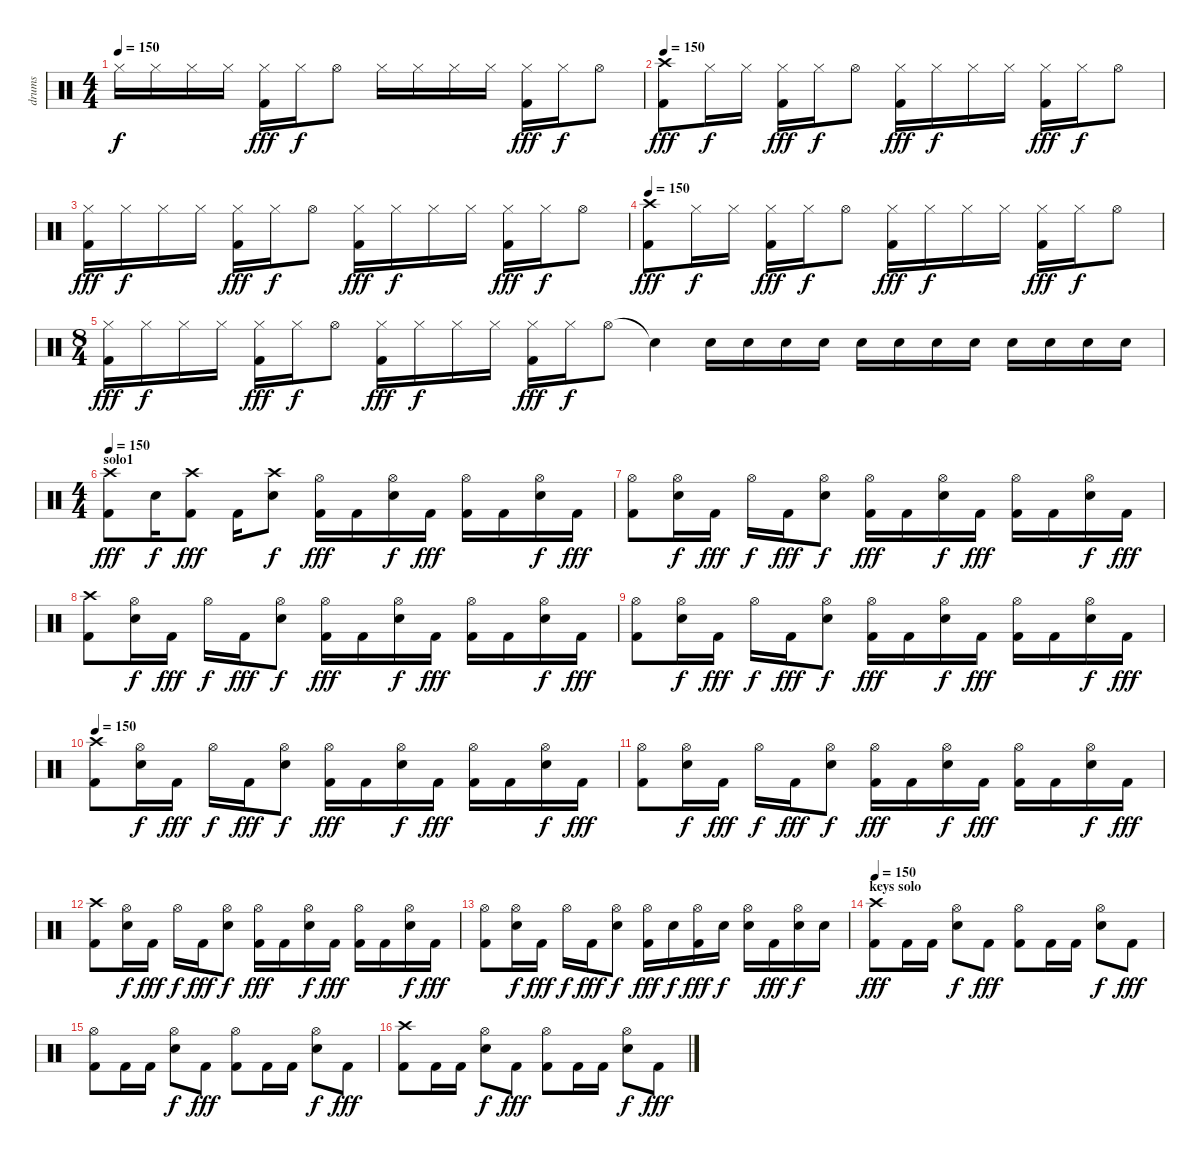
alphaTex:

\track ("drums" "drums") {instrument percussion}
\staff {score}
\articulation defaults
\ts (4 4)
\tempo 150
\clef neutral
\ks c "Hi-Hat (closed)".16{dy f} "Hi-Hat (closed)".16 "Hi-Hat (closed)".16 "Hi-Hat (closed)".16
("Hi-Hat (closed)" "Kick (hit) 2").16{dy fff} "Hi-Hat (closed)".16{dy f} "Hi-Hat (open)".8 "Hi-Hat (closed)".16 "Hi-Hat (closed)".16 "Hi-Hat (closed)".16 "Hi-Hat (closed)".16 ("Hi-Hat (closed)" "Kick (hit) 2").16{dy fff} "Hi-Hat (closed)".16{dy f} "Hi-Hat (open)".8 |
\tempo 150
("Crash high (hit)" "Kick (hit) 2").8{dy fff} "Hi-Hat (closed)".16{dy f} "Hi-Hat (closed)".16 ("Hi-Hat (closed)" "Kick (hit) 2").16{dy fff} "Hi-Hat (closed)".16{dy f} "Hi-Hat (open)".8 ("Hi-Hat (closed)" "Kick (hit) 2").16{dy fff} "Hi-Hat (closed)".16{dy f} "Hi-Hat (closed)".16 "Hi-Hat (closed)".16 ("Hi-Hat (closed)" "Kick (hit) 2").16{dy fff} "Hi-Hat (closed)".16{dy f} "Hi-Hat (open)".8 |
("Hi-Hat (closed)" "Kick (hit) 2").16{dy fff} "Hi-Hat (closed)".16{dy f} "Hi-Hat (closed)".16 "Hi-Hat (closed)".16 ("Hi-Hat (closed)" "Kick (hit) 2").16{dy fff} "Hi-Hat (closed)".16{dy f} "Hi-Hat (open)".8 ("Hi-Hat (closed)" "Kick (hit) 2").16{dy fff} "Hi-Hat (closed)".16{dy f} "Hi-Hat (closed)".16 "Hi-Hat (closed)".16 ("Hi-Hat (closed)" "Kick (hit) 2").16{dy fff} "Hi-Hat (closed)".16{dy f} "Hi-Hat (open)".8 |
\tempo 150
("Crash high (hit)" "Kick (hit) 2").8{dy fff} "Hi-Hat (closed)".16{dy f} "Hi-Hat (closed)".16 ("Hi-Hat (closed)" "Kick (hit) 2").16{dy fff} "Hi-Hat (closed)".16{dy f} "Hi-Hat (open)".8 ("Hi-Hat (closed)" "Kick (hit) 2").16{dy fff} "Hi-Hat (closed)".16{dy f} "Hi-Hat (closed)".16 "Hi-Hat (closed)".16 ("Hi-Hat (closed)" "Kick (hit) 2").16{dy fff} "Hi-Hat (closed)".16{dy f} "Hi-Hat (open)".8 |
\ts (8 4)
("Hi-Hat (closed)" "Kick (hit) 2").16{dy fff} "Hi-Hat (closed)".16{dy f} "Hi-Hat (closed)".16 "Hi-Hat (closed)".16 ("Hi-Hat (closed)" "Kick (hit) 2").16{dy fff} "Hi-Hat (closed)".16{dy f} "Hi-Hat (open)".8 ("Hi-Hat (closed)" "Kick (hit) 2").16{dy fff} "Hi-Hat (closed)".16{dy f} "Hi-Hat (closed)".16 "Hi-Hat (closed)".16 ("Hi-Hat (closed)" "Kick (hit) 2").16{dy fff} "Hi-Hat (closed)".16{dy f} "Hi-Hat (open)".8 "Snare (hit)"{t}.4 "Snare (hit) 2".16 "Snare (hit) 2".16 "Snare (hit) 2".16 "Snare (hit) 2".16 "Snare (hit) 2".16 "Snare (hit) 2".16 "Snare (hit) 2".16 "Snare (hit) 2".16 "Snare (hit) 2".16 "Snare (hit) 2".16 "Snare (hit) 2".16 "Snare (hit) 2".16 |
\ts (4 4)
\section ("" "solo1")
\tempo 150
("Crash high (hit)" "Kick (hit) 2").8{dy fff} "Snare (hit) 2".16{dy f} ("Crash high (hit)" "Kick (hit) 2").8{dy fff} "Kick (hit) 2".16 ("Crash high (hit)" "Snare (hit) 2").8{dy f} ("Hi-Hat (open)" "Kick (hit) 2").16{dy fff} "Kick (hit) 2".16 ("Hi-Hat (open)" "Snare (hit) 2").16{dy f} "Kick (hit) 2".16{dy fff} ("Hi-Hat (open)" "Kick (hit) 2").16 "Kick (hit) 2".16 ("Hi-Hat (open)" "Snare (hit) 2").16{dy f} "Kick (hit) 2".16{dy fff} |
("Hi-Hat (open)" "Kick (hit) 2").8 ("Hi-Hat (open)" "Snare (hit) 2").16{dy f} "Kick (hit) 2".16{dy fff} "Hi-Hat (open)".16{dy f} "Kick (hit) 2".16{dy fff} ("Hi-Hat (open)" "Snare (hit) 2").8{dy f} ("Hi-Hat (open)" "Kick (hit) 2").16{dy fff} "Kick (hit) 2".16 ("Hi-Hat (open)" "Snare (hit) 2").16{dy f} "Kick (hit) 2".16{dy fff} ("Hi-Hat (open)" "Kick (hit) 2").16 "Kick (hit) 2".16 ("Hi-Hat (open)" "Snare (hit) 2").16{dy f} "Kick (hit) 2".16{dy fff} |
("Crash high (hit)" "Kick (hit) 2").8 ("Hi-Hat (open)" "Snare (hit) 2").16{dy f} "Kick (hit) 2".16{dy fff} "Hi-Hat (open)".16{dy f} "Kick (hit) 2".16{dy fff} ("Hi-Hat (open)" "Snare (hit) 2").8{dy f} ("Hi-Hat (open)" "Kick (hit) 2").16{dy fff} "Kick (hit) 2".16 ("Hi-Hat (open)" "Snare (hit) 2").16{dy f} "Kick (hit) 2".16{dy fff} ("Hi-Hat (open)" "Kick (hit) 2").16 "Kick (hit) 2".16 ("Hi-Hat (open)" "Snare (hit) 2").16{dy f} "Kick (hit) 2".16{dy fff} |
("Hi-Hat (open)" "Kick (hit) 2").8 ("Hi-Hat (open)" "Snare (hit) 2").16{dy f} "Kick (hit) 2".16{dy fff} "Hi-Hat (open)".16{dy f} "Kick (hit) 2".16{dy fff} ("Hi-Hat (open)" "Snare (hit) 2").8{dy f} ("Hi-Hat (open)" "Kick (hit) 2").16{dy fff} "Kick (hit) 2".16 ("Hi-Hat (open)" "Snare (hit) 2").16{dy f} "Kick (hit) 2".16{dy fff} ("Hi-Hat (open)" "Kick (hit) 2").16 "Kick (hit) 2".16 ("Hi-Hat (open)" "Snare (hit) 2").16{dy f} "Kick (hit) 2".16{dy fff} |
\tempo 150
("Crash high (hit)" "Kick (hit) 2").8 ("Hi-Hat (open)" "Snare (hit) 2").16{dy f} "Kick (hit) 2".16{dy fff} "Hi-Hat (open)".16{dy f} "Kick (hit) 2".16{dy fff} ("Hi-Hat (open)" "Snare (hit) 2").8{dy f} ("Hi-Hat (open)" "Kick (hit) 2").16{dy fff} "Kick (hit) 2".16 ("Hi-Hat (open)" "Snare (hit) 2").16{dy f} "Kick (hit) 2".16{dy fff} ("Hi-Hat (open)" "Kick (hit) 2").16 "Kick (hit) 2".16 ("Hi-Hat (open)" "Snare (hit) 2").16{dy f} "Kick (hit) 2".16{dy fff} |
("Hi-Hat (open)" "Kick (hit) 2").8 ("Hi-Hat (open)" "Snare (hit) 2").16{dy f} "Kick (hit) 2".16{dy fff} "Hi-Hat (open)".16{dy f} "Kick (hit) 2".16{dy fff} ("Hi-Hat (open)" "Snare (hit) 2").8{dy f} ("Hi-Hat (open)" "Kick (hit) 2").16{dy fff} "Kick (hit) 2".16 ("Hi-Hat (open)" "Snare (hit) 2").16{dy f} "Kick (hit) 2".16{dy fff} ("Hi-Hat (open)" "Kick (hit) 2").16 "Kick (hit) 2".16 ("Hi-Hat (open)" "Snare (hit) 2").16{dy f} "Kick (hit) 2".16{dy fff} |
("Crash high (hit)" "Kick (hit) 2").8 ("Hi-Hat (open)" "Snare (hit) 2").16{dy f} "Kick (hit) 2".16{dy fff} "Hi-Hat (open)".16{dy f} "Kick (hit) 2".16{dy fff} ("Hi-Hat (open)" "Snare (hit) 2").8{dy f} ("Hi-Hat (open)" "Kick (hit) 2").16{dy fff} "Kick (hit) 2".16 ("Hi-Hat (open)" "Snare (hit) 2").16{dy f} "Kick (hit) 2".16{dy fff} ("Hi-Hat (open)" "Kick (hit) 2").16 "Kick (hit) 2".16 ("Hi-Hat (open)" "Snare (hit) 2").16{dy f} "Kick (hit) 2".16{dy fff} |
("Hi-Hat (open)" "Kick (hit) 2").8 ("Hi-Hat (open)" "Snare (hit) 2").16{dy f} "Kick (hit) 2".16{dy fff} "Hi-Hat (open)".16{dy f} "Kick (hit) 2".16{dy fff} ("Hi-Hat (open)" "Snare (hit) 2").8{dy f} ("Hi-Hat (open)" "Kick (hit) 2").16{dy fff} "Snare (hit) 2".16{dy f} ("Hi-Hat (open)" "Kick (hit) 2").16{dy fff} "Snare (hit) 2".16{dy f} ("Hi-Hat (open)" "Snare (hit) 2").16 "Kick (hit) 2".16{dy fff} ("Hi-Hat (open)" "Snare (hit) 2").16{dy f} "Snare (hit) 2".16 |
\section ("" "keys solo")
\tempo 150
("Crash high (hit)" "Kick (hit) 2").8{dy fff} "Kick (hit) 2".16 "Kick (hit) 2".16 ("Hi-Hat (open)" "Snare (hit) 2").8{dy f} "Kick (hit) 2".8{dy fff} ("Hi-Hat (open)" "Kick (hit) 2").8 "Kick (hit) 2".16 "Kick (hit) 2".16 ("Hi-Hat (open)" "Snare (hit) 2").8{dy f} "Kick (hit) 2".8{dy fff} |
("Hi-Hat (open)" "Kick (hit) 2").8 "Kick (hit) 2".16 "Kick (hit) 2".16 ("Hi-Hat (open)" "Snare (hit) 2").8{dy f} "Kick (hit) 2".8{dy fff} ("Hi-Hat (open)" "Kick (hit) 2").8 "Kick (hit) 2".16 "Kick (hit) 2".16 ("Hi-Hat (open)" "Snare (hit) 2").8{dy f} "Kick (hit) 2".8{dy fff} |
("Crash high (hit)" "Kick (hit) 2").8 "Kick (hit) 2".16 "Kick (hit) 2".16 ("Hi-Hat (open)" "Snare (hit) 2").8{dy f} "Kick (hit) 2".8{dy fff} ("Hi-Hat (open)" "Kick (hit) 2").8 "Kick (hit) 2".16 "Kick (hit) 2".16 ("Hi-Hat (open)" "Snare (hit) 2").8{dy f} "Kick (hit) 2".8{dy fff}
